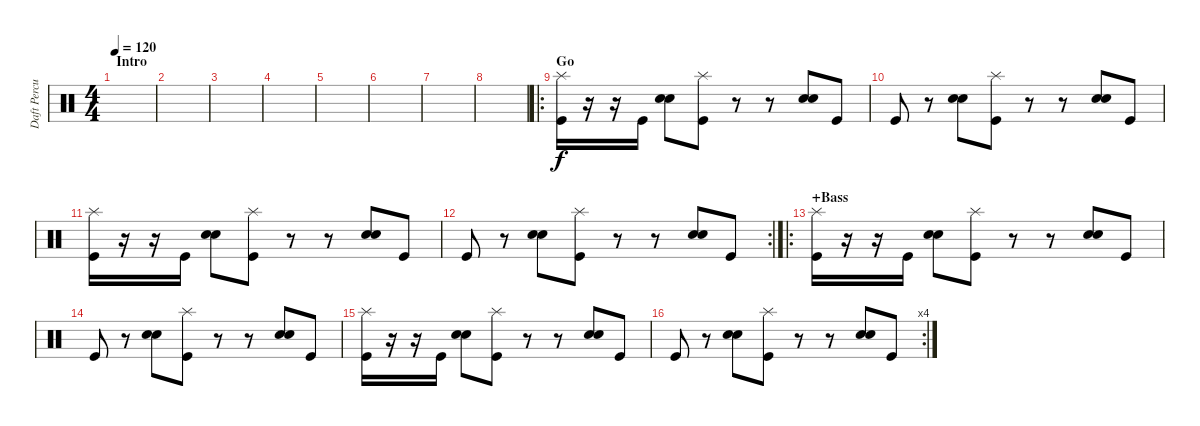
\track ("Daft Percussion 1" "Daft Percu") {instrument percussion}
\staff {score}
\articulation defaults
\ts (4 4)
\section ("" "Intro")
\tempo 120
\clef neutral
\ks c
|
|
|
|
|
|
|
|
\ro
\section ("" "Go")
("Splash (hit)" "Kick (hit)").16 r.16 r.16 "Kick (hit)".16 ("Hand Clap (hit)" "Electric Snare (hit)").8 ("Splash (hit)" "Kick (hit)").8 r.8 r.8 ("Hand Clap (hit)" "Electric Snare (hit)").8 "Kick (hit)".8 |
"Kick (hit)".8 r.8 ("Hand Clap (hit)" "Electric Snare (hit)").8 ("Splash (hit)" "Kick (hit)").8 r.8 r.8 ("Hand Clap (hit)" "Electric Snare (hit)").8 "Kick (hit)".8 |
("Splash (hit)" "Kick (hit)").16 r.16 r.16 "Kick (hit)".16 ("Hand Clap (hit)" "Electric Snare (hit)").8 ("Splash (hit)" "Kick (hit)").8 r.8 r.8 ("Hand Clap (hit)" "Electric Snare (hit)").8 "Kick (hit)".8 |
\rc 2 "Kick (hit)".8
r.8 ("Hand Clap (hit)" "Electric Snare (hit)").8 ("Splash (hit)" "Kick (hit)").8 r.8 r.8 ("Hand Clap (hit)" "Electric Snare (hit)").8 "Kick (hit)".8 |
\ro
\section ("" "+Bass")
("Splash (hit)" "Kick (hit)").16 r.16 r.16 "Kick (hit)".16 ("Hand Clap (hit)" "Electric Snare (hit)").8 ("Splash (hit)" "Kick (hit)").8 r.8 r.8 ("Hand Clap (hit)" "Electric Snare (hit)").8 "Kick (hit)".8 |
"Kick (hit)".8 r.8 ("Hand Clap (hit)" "Electric Snare (hit)").8 ("Splash (hit)" "Kick (hit)").8 r.8 r.8 ("Hand Clap (hit)" "Electric Snare (hit)").8 "Kick (hit)".8 |
("Splash (hit)" "Kick (hit)").16 r.16 r.16 "Kick (hit)".16 ("Hand Clap (hit)" "Electric Snare (hit)").8 ("Splash (hit)" "Kick (hit)").8 r.8 r.8 ("Hand Clap (hit)" "Electric Snare (hit)").8 "Kick (hit)".8 |
\rc 4 "Kick (hit)".8
r.8 ("Hand Clap (hit)" "Electric Snare (hit)").8 ("Splash (hit)" "Kick (hit)").8 r.8 r.8 ("Hand Clap (hit)" "Electric Snare (hit)").8 "Kick (hit)".8
